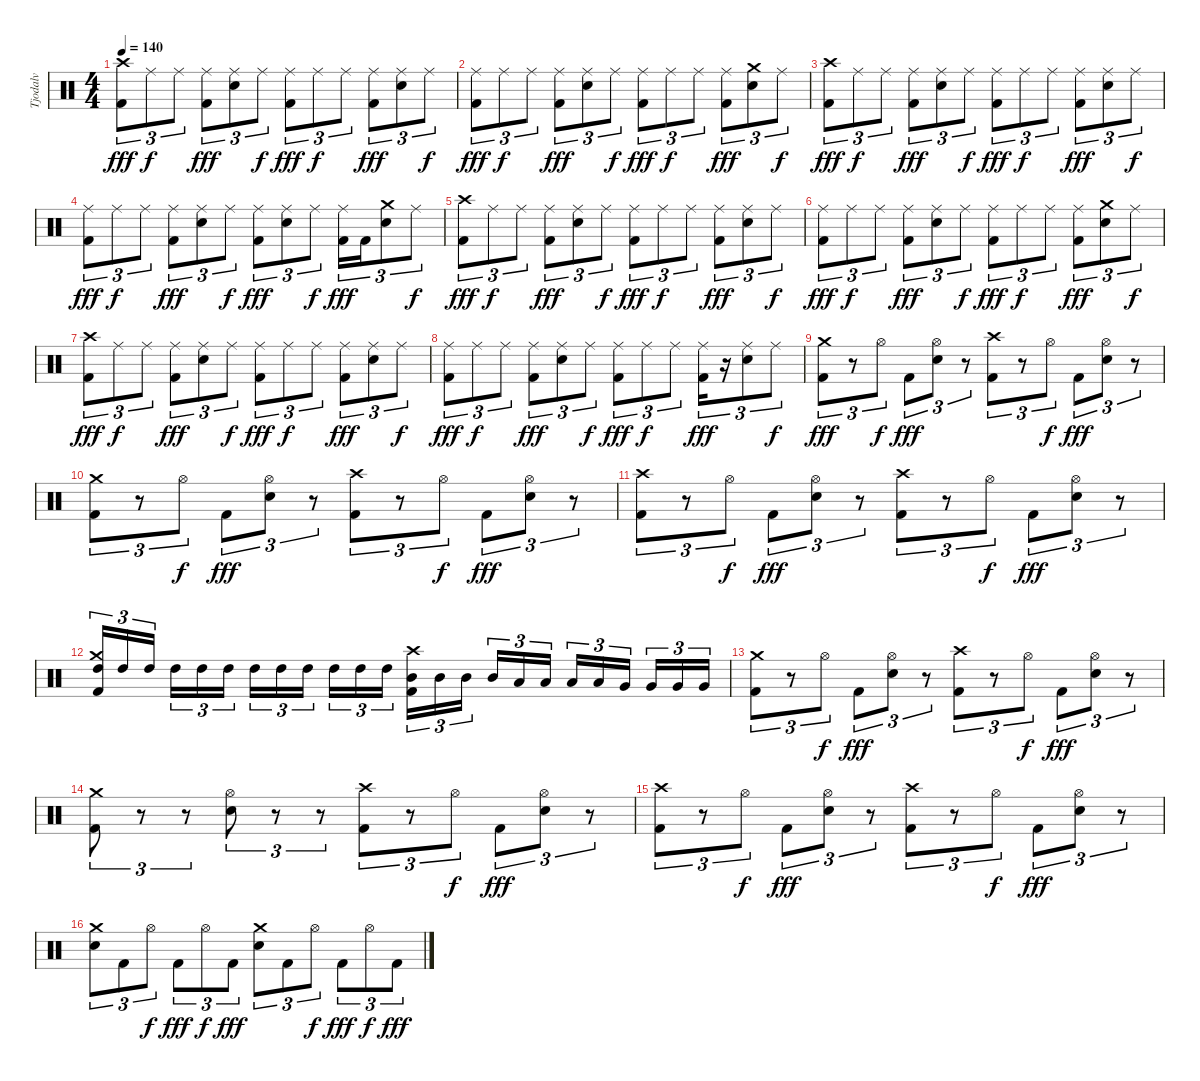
\track ("Tjodalv" "Tjodalv") {instrument percussion}
\staff {score}
\articulation defaults
\ts (4 4)
\tempo 140
\clef neutral
\ks c
("Crash high (hit)" "Kick (hit) 2").8{tu (3 2) dy fff} "Ride (middle)".8{tu (3 2) dy f} "Ride (middle)".8{tu (3 2)} ("Ride (middle)" "Kick (hit) 2").8{tu (3 2) dy fff} ("Ride (middle)" "Snare (hit) 2").8{tu (3 2)} "Ride (middle)".8{tu (3 2) dy f} ("Ride (middle)" "Kick (hit) 2").8{tu (3 2) dy fff} "Ride (middle)".8{tu (3 2) dy f} "Ride (middle)".8{tu (3 2)} ("Ride (middle)" "Kick (hit) 2").8{tu (3 2) dy fff} ("Ride (middle)" "Snare (hit) 2").8{tu (3 2)} "Ride (middle)".8{tu (3 2) dy f} |
("Ride (middle)" "Kick (hit) 2").8{tu (3 2) dy fff} "Ride (middle)".8{tu (3 2) dy f} "Ride (middle)".8{tu (3 2)} ("Ride (middle)" "Kick (hit) 2").8{tu (3 2) dy fff} ("Ride (middle)" "Snare (hit) 2").8{tu (3 2)} "Ride (middle)".8{tu (3 2) dy f} ("Ride (middle)" "Kick (hit) 2").8{tu (3 2) dy fff} "Ride (middle)".8{tu (3 2) dy f} "Ride (middle)".8{tu (3 2)} ("Ride (middle)" "Kick (hit) 2").8{tu (3 2) dy fff} ("Crash medium (hit)" "Snare (hit) 2").8{tu (3 2)} "Ride (middle)".8{tu (3 2) dy f} |
("Crash high (hit)" "Kick (hit) 2").8{tu (3 2) dy fff} "Ride (middle)".8{tu (3 2) dy f} "Ride (middle)".8{tu (3 2)} ("Ride (middle)" "Kick (hit) 2").8{tu (3 2) dy fff} ("Ride (middle)" "Snare (hit) 2").8{tu (3 2)} "Ride (middle)".8{tu (3 2) dy f} ("Ride (middle)" "Kick (hit) 2").8{tu (3 2) dy fff} "Ride (middle)".8{tu (3 2) dy f} "Ride (middle)".8{tu (3 2)} ("Ride (middle)" "Kick (hit) 2").8{tu (3 2) dy fff} ("Ride (middle)" "Snare (hit) 2").8{tu (3 2)} "Ride (middle)".8{tu (3 2) dy f} |
("Ride (middle)" "Kick (hit) 2").8{tu (3 2) dy fff} "Ride (middle)".8{tu (3 2) dy f} "Ride (middle)".8{tu (3 2)} ("Ride (middle)" "Kick (hit) 2").8{tu (3 2) dy fff} ("Ride (middle)" "Snare (hit) 2").8{tu (3 2)} "Ride (middle)".8{tu (3 2) dy f} ("Ride (middle)" "Kick (hit) 2").8{tu (3 2) dy fff} ("Ride (middle)" "Snare (hit) 2").8{tu (3 2)} "Ride (middle)".8{tu (3 2) dy f} ("Ride (middle)" "Kick (hit) 2").16{tu (3 2) dy fff} "Kick (hit) 2".16{tu (3 2)} ("Crash medium (hit)" "Snare (hit) 2").8{tu (3 2)} "Ride (middle)".8{tu (3 2) dy f} |
("Crash high (hit)" "Kick (hit) 2").8{tu (3 2) dy fff} "Ride (middle)".8{tu (3 2) dy f} "Ride (middle)".8{tu (3 2)} ("Ride (middle)" "Kick (hit) 2").8{tu (3 2) dy fff} ("Ride (middle)" "Snare (hit) 2").8{tu (3 2)} "Ride (middle)".8{tu (3 2) dy f} ("Ride (middle)" "Kick (hit) 2").8{tu (3 2) dy fff} "Ride (middle)".8{tu (3 2) dy f} "Ride (middle)".8{tu (3 2)} ("Ride (middle)" "Kick (hit) 2").8{tu (3 2) dy fff} ("Ride (middle)" "Snare (hit) 2").8{tu (3 2)} "Ride (middle)".8{tu (3 2) dy f} |
("Ride (middle)" "Kick (hit) 2").8{tu (3 2) dy fff} "Ride (middle)".8{tu (3 2) dy f} "Ride (middle)".8{tu (3 2)} ("Ride (middle)" "Kick (hit) 2").8{tu (3 2) dy fff} ("Ride (middle)" "Snare (hit) 2").8{tu (3 2)} "Ride (middle)".8{tu (3 2) dy f} ("Ride (middle)" "Kick (hit) 2").8{tu (3 2) dy fff} "Ride (middle)".8{tu (3 2) dy f} "Ride (middle)".8{tu (3 2)} ("Ride (middle)" "Kick (hit) 2").8{tu (3 2) dy fff} ("Crash medium (hit)" "Snare (hit) 2").8{tu (3 2)} "Ride (middle)".8{tu (3 2) dy f} |
("Crash high (hit)" "Kick (hit) 2").8{tu (3 2) dy fff} "Ride (middle)".8{tu (3 2) dy f} "Ride (middle)".8{tu (3 2)} ("Ride (middle)" "Kick (hit) 2").8{tu (3 2) dy fff} ("Ride (middle)" "Snare (hit) 2").8{tu (3 2)} "Ride (middle)".8{tu (3 2) dy f} ("Ride (middle)" "Kick (hit) 2").8{tu (3 2) dy fff} "Ride (middle)".8{tu (3 2) dy f} "Ride (middle)".8{tu (3 2)} ("Ride (middle)" "Kick (hit) 2").8{tu (3 2) dy fff} ("Ride (middle)" "Snare (hit) 2").8{tu (3 2)} "Ride (middle)".8{tu (3 2) dy f} |
("Ride (middle)" "Kick (hit) 2").8{tu (3 2) dy fff} "Ride (middle)".8{tu (3 2) dy f} "Ride (middle)".8{tu (3 2)} ("Ride (middle)" "Kick (hit) 2").8{tu (3 2) dy fff} ("Ride (middle)" "Snare (hit) 2").8{tu (3 2)} "Ride (middle)".8{tu (3 2) dy f} ("Ride (middle)" "Kick (hit) 2").8{tu (3 2) dy fff} "Ride (middle)".8{tu (3 2) dy f} "Ride (middle)".8{tu (3 2)} ("Ride (middle)" "Kick (hit) 2").16{tu (3 2) dy fff} r.16{tu (3 2)} ("Ride (middle)" "Snare (hit) 2").8{tu (3 2)} "Ride (middle)".8{tu (3 2) dy f} |
("Crash medium (hit)" "Kick (hit) 2").8{tu (3 2) dy fff} r.8{tu (3 2)} "Hi-Hat (open)".8{tu (3 2) dy f} "Kick (hit) 2".8{tu (3 2) dy fff} ("Hi-Hat (open)" "Snare (hit) 2").8{tu (3 2)} r.8{tu (3 2)} ("Crash high (hit)" "Kick (hit) 2").8{tu (3 2)} r.8{tu (3 2)} "Hi-Hat (open)".8{tu (3 2) dy f} "Kick (hit) 2".8{tu (3 2) dy fff} ("Hi-Hat (open)" "Snare (hit) 2").8{tu (3 2)} r.8{tu (3 2)} |
("Crash medium (hit)" "Kick (hit) 2").8{tu (3 2)} r.8{tu (3 2)} "Hi-Hat (open)".8{tu (3 2) dy f} "Kick (hit) 2".8{tu (3 2) dy fff} ("Hi-Hat (open)" "Snare (hit) 2").8{tu (3 2)} r.8{tu (3 2)} ("Crash high (hit)" "Kick (hit) 2").8{tu (3 2)} r.8{tu (3 2)} "Hi-Hat (open)".8{tu (3 2) dy f} "Kick (hit) 2".8{tu (3 2) dy fff} ("Hi-Hat (open)" "Snare (hit) 2").8{tu (3 2)} r.8{tu (3 2)} |
("Crash high (hit)" "Kick (hit) 2").8{tu (3 2)} r.8{tu (3 2)} "Hi-Hat (open)".8{tu (3 2) dy f} "Kick (hit) 2".8{tu (3 2) dy fff} ("Hi-Hat (open)" "Snare (hit) 2").8{tu (3 2)} r.8{tu (3 2)} ("Crash high (hit)" "Kick (hit) 2").8{tu (3 2)} r.8{tu (3 2)} "Hi-Hat (open)".8{tu (3 2) dy f} "Kick (hit) 2".8{tu (3 2) dy fff} ("Hi-Hat (open)" "Snare (hit) 2").8{tu (3 2)} r.8{tu (3 2)} |
("Crash medium (hit)" "High Tom (hit)" "Kick (hit) 2").16{tu (3 2)} "High Tom (hit)".16{tu (3 2)} "High Tom (hit)".16{tu (3 2) beam splitsecondary} "High Tom (hit)".16{tu (3 2)} "High Tom (hit)".16{tu (3 2)} "High Tom (hit)".16{tu (3 2)} "High Tom (hit)".16{tu (3 2)} "High Tom (hit)".16{tu (3 2)} "High Tom (hit)".16{tu (3 2) beam splitsecondary} "High Tom (hit)".16{tu (3 2)} "High Tom (hit)".16{tu (3 2)} "High Tom (hit)".16{tu (3 2)} ("Crash high (hit)" "Mid Tom (hit)" "Kick (hit) 2").16{tu (3 2)} "Mid Tom (hit)".16{tu (3 2)} "Mid Tom (hit)".16{tu (3 2) beam splitsecondary} "Mid Tom (hit)".16{tu (3 2)} "Low Tom (hit)".16{tu (3 2)} "Low Tom (hit)".16{tu (3 2)} "Low Tom (hit)".16{tu (3 2)} "Low Tom (hit)".16{tu (3 2)} "Very Low Tom (hit)".16{tu (3 2) beam splitsecondary} "Very Low Tom (hit)".16{tu (3 2)} "Very Low Tom (hit)".16{tu (3 2)} "Very Low Tom (hit)".16{tu (3 2)} |
("Crash medium (hit)" "Kick (hit) 2").8{tu (3 2)} r.8{tu (3 2)} "Hi-Hat (open)".8{tu (3 2) dy f} "Kick (hit) 2".8{tu (3 2) dy fff} ("Hi-Hat (open)" "Snare (hit) 2").8{tu (3 2)} r.8{tu (3 2)} ("Crash high (hit)" "Kick (hit) 2").8{tu (3 2)} r.8{tu (3 2)} "Hi-Hat (open)".8{tu (3 2) dy f} "Kick (hit) 2".8{tu (3 2) dy fff} ("Hi-Hat (open)" "Snare (hit) 2").8{tu (3 2)} r.8{tu (3 2)} |
("Crash medium (hit)" "Kick (hit) 2").8{tu (3 2)} r.8{tu (3 2)} r.8{tu (3 2)} ("Hi-Hat (open)" "Snare (hit) 2").8{tu (3 2)} r.8{tu (3 2)} r.8{tu (3 2)} ("Crash high (hit)" "Kick (hit) 2").8{tu (3 2)} r.8{tu (3 2)} "Hi-Hat (open)".8{tu (3 2) dy f} "Kick (hit) 2".8{tu (3 2) dy fff} ("Hi-Hat (open)" "Snare (hit) 2").8{tu (3 2)} r.8{tu (3 2)} |
("Crash high (hit)" "Kick (hit) 2").8{tu (3 2)} r.8{tu (3 2)} "Hi-Hat (open)".8{tu (3 2) dy f} "Kick (hit) 2".8{tu (3 2) dy fff} ("Hi-Hat (open)" "Snare (hit) 2").8{tu (3 2)} r.8{tu (3 2)} ("Crash high (hit)" "Kick (hit) 2").8{tu (3 2)} r.8{tu (3 2)} "Hi-Hat (open)".8{tu (3 2) dy f} "Kick (hit) 2".8{tu (3 2) dy fff} ("Hi-Hat (open)" "Snare (hit) 2").8{tu (3 2)} r.8{tu (3 2)} |
("Crash medium (hit)" "Snare (hit) 2").8{tu (3 2)} "Kick (hit) 2".8{tu (3 2)} "Hi-Hat (open)".8{tu (3 2) dy f} "Kick (hit) 2".8{tu (3 2) dy fff} "Hi-Hat (open)".8{tu (3 2) dy f} "Kick (hit) 2".8{tu (3 2) dy fff} ("Crash medium (hit)" "Snare (hit) 2").8{tu (3 2)} "Kick (hit) 2".8{tu (3 2)} "Hi-Hat (open)".8{tu (3 2) dy f} "Kick (hit) 2".8{tu (3 2) dy fff} "Hi-Hat (open)".8{tu (3 2) dy f} "Kick (hit) 2".8{tu (3 2) dy fff}
